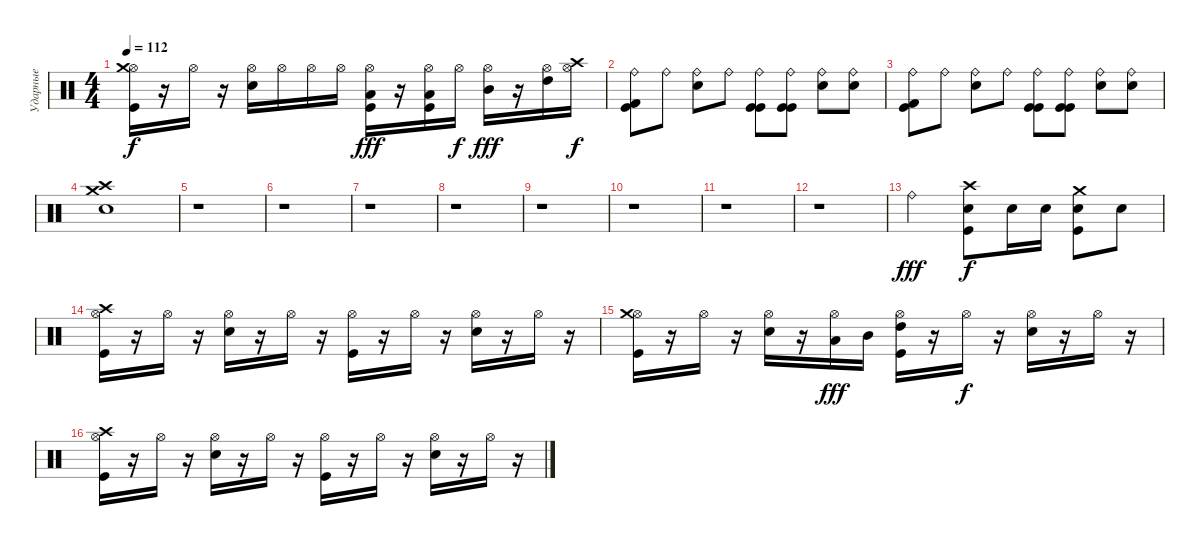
\track ("Ударные" "Ударные") {instrument percussion}
\staff {score}
\articulation defaults
\ts (4 4)
\tempo 112
\clef neutral
\ks c
("Hi-Hat (open)" "Crash medium (hit)" "Kick (hit)").16{dy f} r.16 "Hi-Hat (open)".16 r.16 ("Hi-Hat (open)" "Snare (hit) 2").16 "Hi-Hat (open)".16 "Hi-Hat (open)".16 "Hi-Hat (open)".16 ("Hi-Hat (open)" "Low Tom (hit)" "Kick (hit)").16{dy fff} r.16 ("Hi-Hat (open)" "Low Tom (hit)" "Kick (hit)").16 "Hi-Hat (open)".16{dy f} ("Hi-Hat (open)" "Mid Tom (hit)").16{dy fff} r.16 ("Hi-Hat (open)" "High Tom (hit)").16 ("Hi-Hat (open)" "Crash high (hit)").16{dy f} |
("Ride (bell)" "Kick (hit) 2" "Kick (hit)").8 "Ride (bell)".8 ("Ride (bell)" "Snare (hit) 2").8 "Ride (bell)".8 ("Ride (bell)" "Kick (hit)" "Kick (hit)").8 ("Ride (bell)" "Kick (hit)" "Kick (hit)").8 ("Ride (bell)" "Snare (hit) 2").8 ("Ride (bell)" "Snare (hit) 2").8 |
("Ride (bell)" "Kick (hit) 2" "Kick (hit)").8 "Ride (bell)".8 ("Ride (bell)" "Snare (hit) 2").8 "Ride (bell)".8 ("Ride (bell)" "Kick (hit)" "Kick (hit)").8 ("Ride (bell)" "Kick (hit)" "Kick (hit)").8 ("Ride (bell)" "Snare (hit) 2").8 ("Ride (bell)" "Snare (hit) 2").8 |
("Crash high (hit)" "Crash medium (hit)" "Snare (hit) 2").1 |
r.1 |
r.1 |
r.1 |
r.1 |
r.1 |
r.1 |
r.1 |
r.1 |
"Ride (bell)".2{dy fff} ("Snare (hit) 2" "Crash high (hit)" "Kick (hit)").8{dy f} "Snare (hit) 2".16 "Snare (hit) 2".16 ("Snare (hit) 2" "Crash medium (hit)" "Kick (hit)").8 "Snare (hit) 2".8 |
("Hi-Hat (open)" "Crash high (hit)" "Kick (hit)").16 r.16 "Hi-Hat (open)".16 r.16 ("Hi-Hat (open)" "Snare (hit) 2").16 r.16 "Hi-Hat (open)".16 r.16 ("Hi-Hat (open)" "Kick (hit)").16 r.16 "Hi-Hat (open)".16 r.16 ("Hi-Hat (open)" "Snare (hit) 2").16 r.16 "Hi-Hat (open)".16 r.16 |
("Hi-Hat (open)" "Crash medium (hit)" "Kick (hit)").16 r.16 "Hi-Hat (open)".16 r.16 ("Hi-Hat (open)" "Snare (hit) 2").16 r.16 ("Hi-Hat (open)" "Low Tom (hit)").16{dy fff} "Mid Tom (hit)".16 ("Hi-Hat (open)" "High Tom (hit)" "Kick (hit)").16 r.16 "Hi-Hat (open)".16{dy f} r.16 ("Hi-Hat (open)" "Snare (hit) 2").16 r.16 "Hi-Hat (open)".16 r.16 |
("Hi-Hat (open)" "Crash high (hit)" "Kick (hit)").16 r.16 "Hi-Hat (open)".16 r.16 ("Hi-Hat (open)" "Snare (hit) 2").16 r.16 "Hi-Hat (open)".16 r.16 ("Hi-Hat (open)" "Kick (hit)").16 r.16 "Hi-Hat (open)".16 r.16 ("Hi-Hat (open)" "Snare (hit) 2").16 r.16 "Hi-Hat (open)".16 r.16
